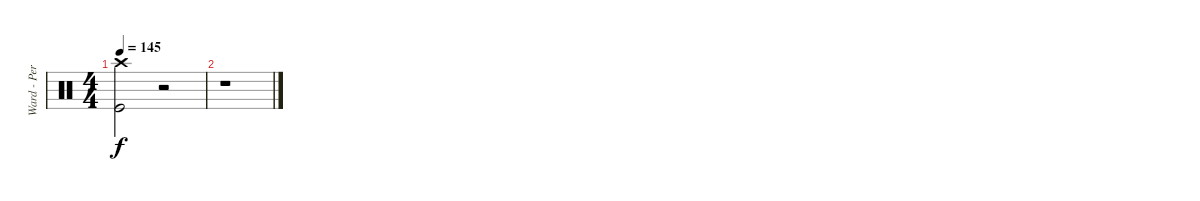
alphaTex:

\track ("Ward - Percussion" "Ward - Per") {instrument percussion}
\staff {score}
\articulation defaults
\ts (4 4)
\tempo 145
\clef neutral
\ks c
("Kick (hit)" "Crash high (hit)").2{dy f} r.2 |
r.1
